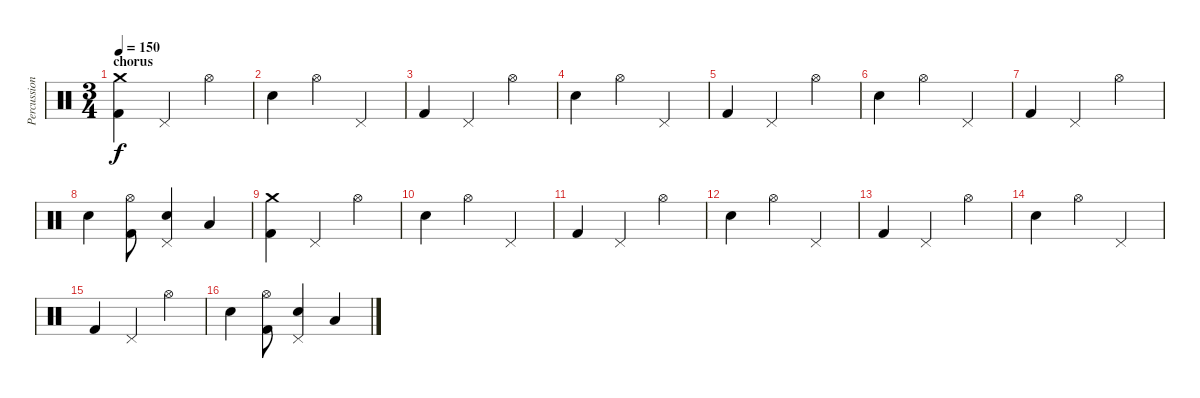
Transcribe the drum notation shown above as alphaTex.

\track ("Percussion" "Percussion") {instrument percussion}
\staff {score}
\articulation defaults
\ts (3 4)
\section ("" "chorus")
\tempo 150
\clef neutral
\ks c
("Kick (hit) 2" "Crash medium (hit)").4{dy f} "Pedal Hi-Hat (hit)".4 "Hi-Hat (open)".4 |
"Snare (hit) 2".4 "Hi-Hat (open)".4 "Pedal Hi-Hat (hit)".4 |
"Kick (hit) 2".4 "Pedal Hi-Hat (hit)".4 "Hi-Hat (open)".4 |
"Snare (hit) 2".4 "Hi-Hat (open)".4 "Pedal Hi-Hat (hit)".4 |
"Kick (hit) 2".4 "Pedal Hi-Hat (hit)".4 "Hi-Hat (open)".4 |
"Snare (hit) 2".4 "Hi-Hat (open)".4 "Pedal Hi-Hat (hit)".4 |
"Kick (hit) 2".4 "Pedal Hi-Hat (hit)".4 "Hi-Hat (open)".4 |
"Snare (hit) 2".4 ("Kick (hit) 2" "Hi-Hat (open)").8 ("Snare (hit) 2" "Pedal Hi-Hat (hit)").4 "Low Tom (hit)".4 |
("Kick (hit) 2" "Crash medium (hit)").4 "Pedal Hi-Hat (hit)".4 "Hi-Hat (open)".4 |
"Snare (hit) 2".4 "Hi-Hat (open)".4 "Pedal Hi-Hat (hit)".4 |
"Kick (hit) 2".4 "Pedal Hi-Hat (hit)".4 "Hi-Hat (open)".4 |
"Snare (hit) 2".4 "Hi-Hat (open)".4 "Pedal Hi-Hat (hit)".4 |
"Kick (hit) 2".4 "Pedal Hi-Hat (hit)".4 "Hi-Hat (open)".4 |
"Snare (hit) 2".4 "Hi-Hat (open)".4 "Pedal Hi-Hat (hit)".4 |
"Kick (hit) 2".4 "Pedal Hi-Hat (hit)".4 "Hi-Hat (open)".4 |
"Snare (hit) 2".4 ("Kick (hit) 2" "Hi-Hat (open)").8 ("Snare (hit) 2" "Pedal Hi-Hat (hit)").4 "Low Tom (hit)".4
